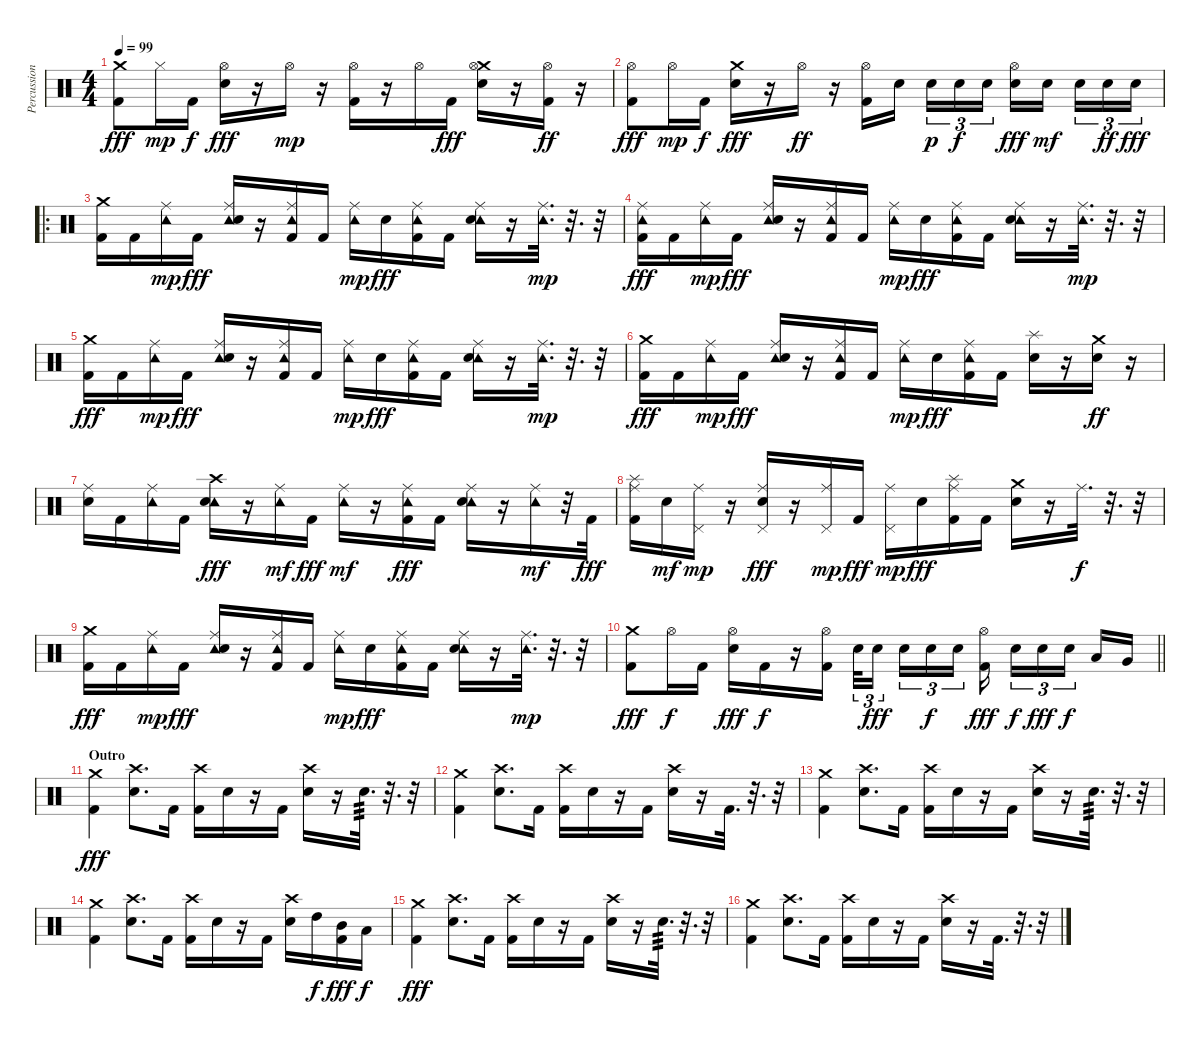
\track ("Percussion" "Percussion") {instrument percussion}
\staff {score}
\articulation defaults
\ts (4 4)
\tempo 99
\clef neutral
\ks c
("Crash medium (hit)" "Kick (hit) 2").8{dy fff} "Hi-Hat (closed)".16{dy mp} "Kick (hit) 2".16{dy f} ("Hi-Hat (open)" "Snare (hit) 2").16{dy fff} r.16 "Hi-Hat (open)".16{dy mp} r.16 ("Hi-Hat (open)" "Kick (hit) 2").16 r.16 "Hi-Hat (open)".16 "Kick (hit) 2".16{dy fff} ("Crash medium (hit)" "Hi-Hat (open)" "Snare (hit) 2").16 r.16 ("Hi-Hat (open)" "Kick (hit) 2").16{dy ff} r.16 |
("Hi-Hat (open)" "Kick (hit) 2").8{dy fff} "Hi-Hat (open)".16{dy mp} "Kick (hit) 2".16{dy f} ("Crash medium (hit)" "Snare (hit) 2").16{dy fff} r.16 "Hi-Hat (open)".16{dy ff} r.16 ("Hi-Hat (open)" "Kick (hit) 2").16 "Snare (hit) 2".16{beam splitsecondary} "Snare (hit) 2".16{tu (3 2) dy p} "Snare (hit) 2".16{tu (3 2) dy f} "Snare (hit) 2".16{tu (3 2)} ("Hi-Hat (open)" "Snare (hit) 2").16{dy fff} "Snare (hit) 2".16{dy mf beam splitsecondary} "Snare (hit) 2".16{tu (3 2)} "Snare (hit) 2".16{tu (3 2) dy ff} "Snare (hit) 2".16{tu (3 2) dy fff} |
\ro
("Crash medium (hit)" "Kick (hit) 2").16 "Kick (hit) 2".16 ("Ride (middle)" "Tambourine (hit)").16{dy mp} "Kick (hit) 2".16{dy fff} ("Ride (middle)" "Tambourine (hit)" "Snare (hit) 2").16 r.16 ("Ride (middle)" "Tambourine (hit)" "Kick (hit) 2").16 "Kick (hit) 2".16 ("Ride (middle)" "Tambourine (hit)").16{dy mp} "Snare (hit) 2".16{dy fff} ("Ride (middle)" "Tambourine (hit)" "Kick (hit) 2").16 "Kick (hit) 2".16 ("Ride (middle)" "Tambourine (hit)" "Snare (hit) 2").16 r.16 ("Ride (middle)" "Tambourine (hit)").32{d dy mp} r.32{d} r.32 |
("Ride (middle)" "Tambourine (hit)" "Kick (hit) 2").16{dy fff} "Kick (hit) 2".16 ("Ride (middle)" "Tambourine (hit)").16{dy mp} "Kick (hit) 2".16{dy fff} ("Ride (middle)" "Tambourine (hit)" "Snare (hit) 2").16 r.16 ("Ride (middle)" "Tambourine (hit)" "Kick (hit) 2").16 "Kick (hit) 2".16 ("Ride (middle)" "Tambourine (hit)").16{dy mp} "Snare (hit) 2".16{dy fff} ("Ride (middle)" "Tambourine (hit)" "Kick (hit) 2").16 "Kick (hit) 2".16 ("Ride (middle)" "Tambourine (hit)" "Snare (hit) 2").16 r.16 ("Ride (middle)" "Tambourine (hit)").32{d dy mp} r.32{d} r.32 |
("Crash medium (hit)" "Kick (hit) 2").16{dy fff} "Kick (hit) 2".16 ("Ride (middle)" "Tambourine (hit)").16{dy mp} "Kick (hit) 2".16{dy fff} ("Ride (middle)" "Tambourine (hit)" "Snare (hit) 2").16 r.16 ("Ride (middle)" "Tambourine (hit)" "Kick (hit) 2").16 "Kick (hit) 2".16 ("Ride (middle)" "Tambourine (hit)").16{dy mp} "Snare (hit) 2".16{dy fff} ("Ride (middle)" "Tambourine (hit)" "Kick (hit) 2").16 "Kick (hit) 2".16 ("Ride (middle)" "Tambourine (hit)" "Snare (hit) 2").16 r.16 ("Ride (middle)" "Tambourine (hit)").32{d dy mp} r.32{d} r.32 |
("Crash medium (hit)" "Kick (hit) 2").16{dy fff} "Kick (hit) 2".16 ("Ride (middle)" "Tambourine (hit)").16{dy mp} "Kick (hit) 2".16{dy fff} ("Ride (middle)" "Tambourine (hit)" "Snare (hit) 2").16 r.16 ("Ride (middle)" "Tambourine (hit)" "Kick (hit) 2").16 "Kick (hit) 2".16 ("Ride (middle)" "Tambourine (hit)").16{dy mp} "Snare (hit) 2".16{dy fff} ("Ride (middle)" "Tambourine (hit)" "Kick (hit) 2").16 "Kick (hit) 2".16 ("Splash (hit)" "Snare (hit) 2").16 r.16 ("Crash medium (hit)" "Snare (hit) 2").16{dy ff} r.16 |
("Ride (middle)" "Snare (hit) 2").16 "Kick (hit) 2".16 ("Ride (middle)" "Tambourine (hit)").16 "Kick (hit) 2".16 ("Crash high (hit)" "Tambourine (hit)" "Snare (hit) 2").16{dy fff} r.16 ("Ride (middle)" "Tambourine (hit)").16{dy mf} "Kick (hit) 2".16{dy fff} ("Ride (middle)" "Tambourine (hit)").16{dy mf} r.16 ("Ride (middle)" "Tambourine (hit)" "Kick (hit) 2").16{dy fff} "Kick (hit) 2".16 ("Ride (middle)" "Tambourine (hit)" "Snare (hit) 2").16 r.16 ("Ride (middle)" "Tambourine (hit)").16{dy mf} r.32 "Kick (hit) 2".32{dy fff} |
("Ride (middle)" "Splash (hit)" "Kick (hit) 2").16 "Snare (hit) 2".16{dy mf} ("Ride (middle)" "Pedal Hi-Hat (hit)").16{dy mp} r.16 ("Ride (middle)" "Pedal Hi-Hat (hit)" "Snare (hit) 2").16{dy fff} r.16 ("Ride (middle)" "Pedal Hi-Hat (hit)").16{dy mp} "Kick (hit) 2".16{dy fff} ("Ride (middle)" "Pedal Hi-Hat (hit)").16{dy mp} "Snare (hit) 2".16{dy fff} ("Ride (middle)" "Splash (hit)" "Kick (hit) 2").16 "Kick (hit) 2".16 ("Crash medium (hit)" "Snare (hit) 2").16 r.16 "Ride (middle)".32{d dy f} r.32{d} r.32 |
("Crash medium (hit)" "Kick (hit) 2").16{dy fff} "Kick (hit) 2".16 ("Ride (middle)" "Tambourine (hit)").16{dy mp} "Kick (hit) 2".16{dy fff} ("Ride (middle)" "Tambourine (hit)" "Snare (hit) 2").16 r.16 ("Ride (middle)" "Tambourine (hit)" "Kick (hit) 2").16 "Kick (hit) 2".16 ("Ride (middle)" "Tambourine (hit)").16{dy mp} "Snare (hit) 2".16{dy fff} ("Ride (middle)" "Tambourine (hit)" "Kick (hit) 2").16 "Kick (hit) 2".16 ("Ride (middle)" "Tambourine (hit)" "Snare (hit) 2").16 r.16 ("Ride (middle)" "Tambourine (hit)").32{d dy mp} r.32{d} r.32 |
\barLineRight lightlight
("Crash medium (hit)" "Kick (hit) 2").8{dy fff} "Hi-Hat (open)".16{dy f} "Kick (hit) 2".16 ("Hi-Hat (open)" "Snare (hit) 2").16{dy fff} "Kick (hit) 2".16{dy f} r.16 ("Hi-Hat (open)" "Kick (hit) 2").16 "Snare (hit) 2".32{tu (3 2)} "Snare (hit) 2".16{tu (3 2) dy fff beam splitsecondary} "Snare (hit) 2".16{tu (3 2)} "Snare (hit) 2".16{tu (3 2) dy f} "Snare (hit) 2".16{tu (3 2) beam splitsecondary} ("Hi-Hat (open)" "Kick (hit) 2").16{dy fff} "Snare (hit) 2".16{tu (3 2) dy f} "Snare (hit) 2".16{tu (3 2) dy fff} "Snare (hit) 2".16{tu (3 2) dy f beam splitsecondary} "Low Tom (hit)".16 "Very Low Tom (hit)".16 |
\section ("" "Outro")
("Crash medium (hit)" "Kick (hit) 2").4{dy fff} ("Crash high (hit)" "Snare (hit) 2").8{d} "Kick (hit) 2".16 ("Crash high (hit)" "Kick (hit) 2").16 "Snare (hit) 2".16 r.16 "Kick (hit) 2".16 ("Crash high (hit)" "Snare (hit) 2").16 r.16 "Snare (hit) 2".32{d tp 3} r.32{d} r.32 |
("Crash medium (hit)" "Kick (hit) 2").4 ("Crash high (hit)" "Snare (hit) 2").8{d} "Kick (hit) 2".16 ("Crash high (hit)" "Kick (hit) 2").16 "Snare (hit) 2".16 r.16 "Kick (hit) 2".16 ("Crash high (hit)" "Snare (hit) 2").16 r.16 "Kick (hit) 2".32{d} r.32{d} r.32 |
("Crash medium (hit)" "Kick (hit) 2").4 ("Crash high (hit)" "Snare (hit) 2").8{d} "Kick (hit) 2".16 ("Crash high (hit)" "Kick (hit) 2").16 "Snare (hit) 2".16 r.16 "Kick (hit) 2".16 ("Crash high (hit)" "Snare (hit) 2").16 r.16 "Snare (hit) 2".32{d tp 3} r.32{d} r.32 |
("Crash medium (hit)" "Kick (hit) 2").4 ("Crash high (hit)" "Snare (hit) 2").8{d} "Kick (hit) 2".16 ("Crash high (hit)" "Kick (hit) 2").16 "Snare (hit) 2".16 r.16 "Kick (hit) 2".16 ("Crash high (hit)" "Snare (hit) 2").16 "High Tom (hit)".16{dy f} ("Mid Tom (hit)" "Kick (hit) 2").16{dy fff} "Low Tom (hit)".16{dy f} |
("Crash medium (hit)" "Kick (hit) 2").4{dy fff} ("Crash high (hit)" "Snare (hit) 2").8{d} "Kick (hit) 2".16 ("Crash high (hit)" "Kick (hit) 2").16 "Snare (hit) 2".16 r.16 "Kick (hit) 2".16 ("Crash high (hit)" "Snare (hit) 2").16 r.16 "Snare (hit) 2".32{d tp 3} r.32{d} r.32 |
("Crash medium (hit)" "Kick (hit) 2").4 ("Crash high (hit)" "Snare (hit) 2").8{d} "Kick (hit) 2".16 ("Crash high (hit)" "Kick (hit) 2").16 "Snare (hit) 2".16 r.16 "Kick (hit) 2".16 ("Crash high (hit)" "Snare (hit) 2").16 r.16 "Kick (hit) 2".32{d} r.32{d} r.32
